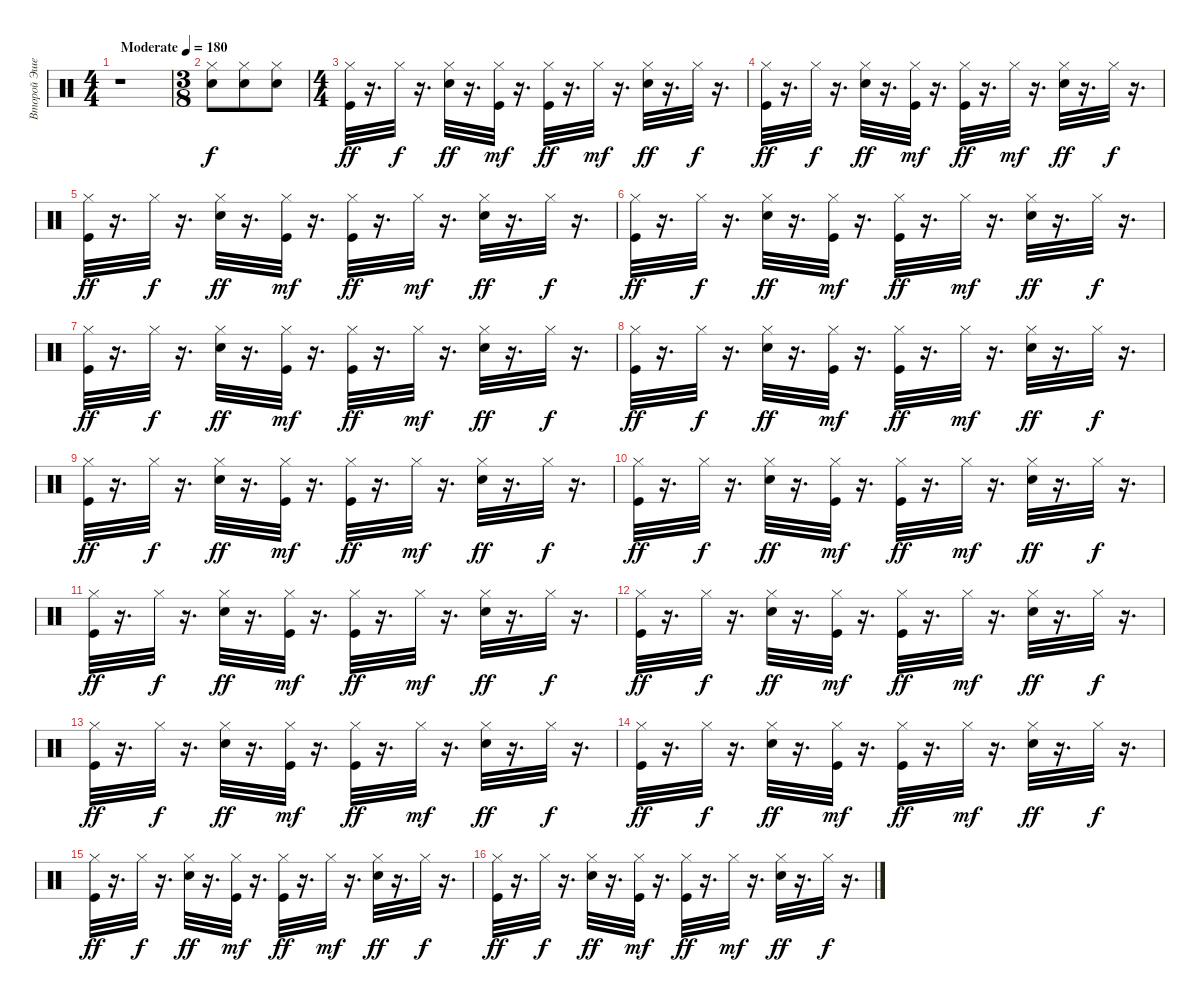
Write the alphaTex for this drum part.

\track ("Второй Эшелон" "Второй Эше") {instrument percussion}
\staff {score}
\articulation defaults
\ts (4 4)
\tempo (180 "Moderate")
\clef neutral
\ks c
r.1{dy f} |
\ts (3 8)
("Hi-Hat (closed)" "Snare (hit) 2").8 ("Hi-Hat (closed)" "Snare (hit) 2").8 ("Hi-Hat (closed)" "Snare (hit) 2").8 |
\ts (4 4)
("Kick (hit)" "Hi-Hat (closed)").32{dy ff} r.16{d} "Hi-Hat (closed)".32{dy f} r.16{d} ("Hi-Hat (closed)" "Electric Snare (hit)").32{dy ff} r.16{d} ("Kick (hit)" "Hi-Hat (closed)").32{dy mf} r.16{d} ("Kick (hit)" "Hi-Hat (closed)").32{dy ff} r.16{d} "Hi-Hat (closed)".32{dy mf} r.16{d} ("Hi-Hat (closed)" "Electric Snare (hit)").32{dy ff} r.16{d} "Hi-Hat (closed)".32{dy f} r.16{d} |
("Kick (hit)" "Hi-Hat (closed)").32{dy ff} r.16{d} "Hi-Hat (closed)".32{dy f} r.16{d} ("Hi-Hat (closed)" "Electric Snare (hit)").32{dy ff} r.16{d} ("Kick (hit)" "Hi-Hat (closed)").32{dy mf} r.16{d} ("Kick (hit)" "Hi-Hat (closed)").32{dy ff} r.16{d} "Hi-Hat (closed)".32{dy mf} r.16{d} ("Hi-Hat (closed)" "Electric Snare (hit)").32{dy ff} r.16{d} "Hi-Hat (closed)".32{dy f} r.16{d} |
("Kick (hit)" "Hi-Hat (closed)").32{dy ff} r.16{d} "Hi-Hat (closed)".32{dy f} r.16{d} ("Hi-Hat (closed)" "Electric Snare (hit)").32{dy ff} r.16{d} ("Kick (hit)" "Hi-Hat (closed)").32{dy mf} r.16{d} ("Kick (hit)" "Hi-Hat (closed)").32{dy ff} r.16{d} "Hi-Hat (closed)".32{dy mf} r.16{d} ("Hi-Hat (closed)" "Electric Snare (hit)").32{dy ff} r.16{d} "Hi-Hat (closed)".32{dy f} r.16{d} |
("Kick (hit)" "Hi-Hat (closed)").32{dy ff} r.16{d} "Hi-Hat (closed)".32{dy f} r.16{d} ("Hi-Hat (closed)" "Electric Snare (hit)").32{dy ff} r.16{d} ("Kick (hit)" "Hi-Hat (closed)").32{dy mf} r.16{d} ("Kick (hit)" "Hi-Hat (closed)").32{dy ff} r.16{d} "Hi-Hat (closed)".32{dy mf} r.16{d} ("Hi-Hat (closed)" "Electric Snare (hit)").32{dy ff} r.16{d} "Hi-Hat (closed)".32{dy f} r.16{d} |
("Kick (hit)" "Hi-Hat (closed)").32{dy ff} r.16{d} "Hi-Hat (closed)".32{dy f} r.16{d} ("Hi-Hat (closed)" "Electric Snare (hit)").32{dy ff} r.16{d} ("Kick (hit)" "Hi-Hat (closed)").32{dy mf} r.16{d} ("Kick (hit)" "Hi-Hat (closed)").32{dy ff} r.16{d} "Hi-Hat (closed)".32{dy mf} r.16{d} ("Hi-Hat (closed)" "Electric Snare (hit)").32{dy ff} r.16{d} "Hi-Hat (closed)".32{dy f} r.16{d} |
("Kick (hit)" "Hi-Hat (closed)").32{dy ff} r.16{d} "Hi-Hat (closed)".32{dy f} r.16{d} ("Hi-Hat (closed)" "Electric Snare (hit)").32{dy ff} r.16{d} ("Kick (hit)" "Hi-Hat (closed)").32{dy mf} r.16{d} ("Kick (hit)" "Hi-Hat (closed)").32{dy ff} r.16{d} "Hi-Hat (closed)".32{dy mf} r.16{d} ("Hi-Hat (closed)" "Electric Snare (hit)").32{dy ff} r.16{d} "Hi-Hat (closed)".32{dy f} r.16{d} |
("Kick (hit)" "Hi-Hat (closed)").32{dy ff} r.16{d} "Hi-Hat (closed)".32{dy f} r.16{d} ("Hi-Hat (closed)" "Electric Snare (hit)").32{dy ff} r.16{d} ("Kick (hit)" "Hi-Hat (closed)").32{dy mf} r.16{d} ("Kick (hit)" "Hi-Hat (closed)").32{dy ff} r.16{d} "Hi-Hat (closed)".32{dy mf} r.16{d} ("Hi-Hat (closed)" "Electric Snare (hit)").32{dy ff} r.16{d} "Hi-Hat (closed)".32{dy f} r.16{d} |
("Kick (hit)" "Hi-Hat (closed)").32{dy ff} r.16{d} "Hi-Hat (closed)".32{dy f} r.16{d} ("Hi-Hat (closed)" "Electric Snare (hit)").32{dy ff} r.16{d} ("Kick (hit)" "Hi-Hat (closed)").32{dy mf} r.16{d} ("Kick (hit)" "Hi-Hat (closed)").32{dy ff} r.16{d} "Hi-Hat (closed)".32{dy mf} r.16{d} ("Hi-Hat (closed)" "Electric Snare (hit)").32{dy ff} r.16{d} "Hi-Hat (closed)".32{dy f} r.16{d} |
("Kick (hit)" "Hi-Hat (closed)").32{dy ff} r.16{d} "Hi-Hat (closed)".32{dy f} r.16{d} ("Hi-Hat (closed)" "Electric Snare (hit)").32{dy ff} r.16{d} ("Kick (hit)" "Hi-Hat (closed)").32{dy mf} r.16{d} ("Kick (hit)" "Hi-Hat (closed)").32{dy ff} r.16{d} "Hi-Hat (closed)".32{dy mf} r.16{d} ("Hi-Hat (closed)" "Electric Snare (hit)").32{dy ff} r.16{d} "Hi-Hat (closed)".32{dy f} r.16{d} |
("Kick (hit)" "Hi-Hat (closed)").32{dy ff} r.16{d} "Hi-Hat (closed)".32{dy f} r.16{d} ("Hi-Hat (closed)" "Electric Snare (hit)").32{dy ff} r.16{d} ("Kick (hit)" "Hi-Hat (closed)").32{dy mf} r.16{d} ("Kick (hit)" "Hi-Hat (closed)").32{dy ff} r.16{d} "Hi-Hat (closed)".32{dy mf} r.16{d} ("Hi-Hat (closed)" "Electric Snare (hit)").32{dy ff} r.16{d} "Hi-Hat (closed)".32{dy f} r.16{d} |
("Kick (hit)" "Hi-Hat (closed)").32{dy ff} r.16{d} "Hi-Hat (closed)".32{dy f} r.16{d} ("Hi-Hat (closed)" "Electric Snare (hit)").32{dy ff} r.16{d} ("Kick (hit)" "Hi-Hat (closed)").32{dy mf} r.16{d} ("Kick (hit)" "Hi-Hat (closed)").32{dy ff} r.16{d} "Hi-Hat (closed)".32{dy mf} r.16{d} ("Hi-Hat (closed)" "Electric Snare (hit)").32{dy ff} r.16{d} "Hi-Hat (closed)".32{dy f} r.16{d} |
("Kick (hit)" "Hi-Hat (closed)").32{dy ff} r.16{d} "Hi-Hat (closed)".32{dy f} r.16{d} ("Hi-Hat (closed)" "Electric Snare (hit)").32{dy ff} r.16{d} ("Kick (hit)" "Hi-Hat (closed)").32{dy mf} r.16{d} ("Kick (hit)" "Hi-Hat (closed)").32{dy ff} r.16{d} "Hi-Hat (closed)".32{dy mf} r.16{d} ("Hi-Hat (closed)" "Electric Snare (hit)").32{dy ff} r.16{d} "Hi-Hat (closed)".32{dy f} r.16{d} |
("Kick (hit)" "Hi-Hat (closed)").32{dy ff} r.16{d} "Hi-Hat (closed)".32{dy f} r.16{d} ("Hi-Hat (closed)" "Electric Snare (hit)").32{dy ff} r.16{d} ("Kick (hit)" "Hi-Hat (closed)").32{dy mf} r.16{d} ("Kick (hit)" "Hi-Hat (closed)").32{dy ff} r.16{d} "Hi-Hat (closed)".32{dy mf} r.16{d} ("Hi-Hat (closed)" "Electric Snare (hit)").32{dy ff} r.16{d} "Hi-Hat (closed)".32{dy f} r.16{d} |
("Kick (hit)" "Hi-Hat (closed)").32{dy ff} r.16{d} "Hi-Hat (closed)".32{dy f} r.16{d} ("Hi-Hat (closed)" "Electric Snare (hit)").32{dy ff} r.16{d} ("Kick (hit)" "Hi-Hat (closed)").32{dy mf} r.16{d} ("Kick (hit)" "Hi-Hat (closed)").32{dy ff} r.16{d} "Hi-Hat (closed)".32{dy mf} r.16{d} ("Hi-Hat (closed)" "Electric Snare (hit)").32{dy ff} r.16{d} "Hi-Hat (closed)".32{dy f} r.16{d}
